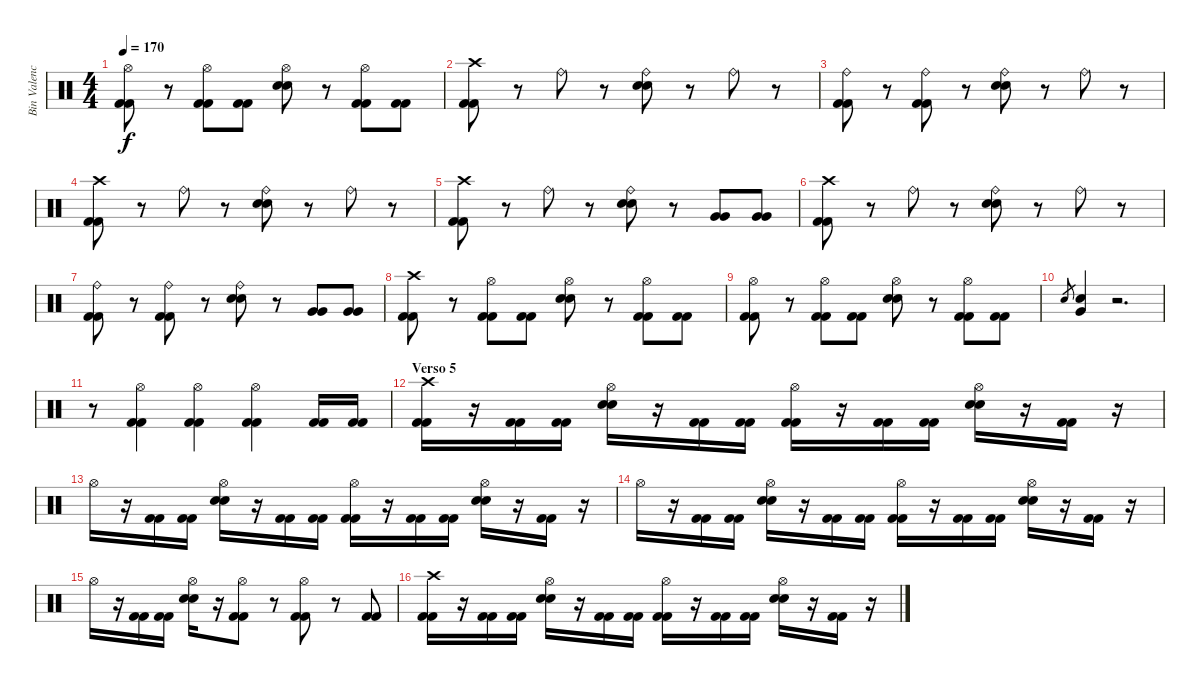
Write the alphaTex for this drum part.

\track ("Bin Valencia (Bateria)" "Bin Valenc") {instrument percussion}
\staff {score}
\articulation defaults
\ts (4 4)
\tempo 170
\clef neutral
\ks c
("Hi-Hat (open)" "Kick (hit) 2" "Kick (hit) 2").8{dy f} r.8 ("Hi-Hat (open)" "Kick (hit) 2" "Kick (hit) 2").8 ("Kick (hit) 2" "Kick (hit) 2").8 ("Hi-Hat (open)" "Snare (hit) 2" "Snare (hit) 2").8 r.8 ("Hi-Hat (open)" "Kick (hit) 2" "Kick (hit) 2").8 ("Kick (hit) 2" "Kick (hit) 2").8 |
("Crash high (hit)" "Kick (hit) 2" "Kick (hit) 2").8 r.8 "Ride (bell)".8 r.8 ("Ride (bell)" "Snare (hit) 2" "Snare (hit) 2").8 r.8 "Ride (bell)".8 r.8 |
("Ride (bell)" "Kick (hit) 2" "Kick (hit) 2").8 r.8 ("Ride (bell)" "Kick (hit) 2" "Kick (hit) 2").8 r.8 ("Ride (bell)" "Snare (hit) 2" "Snare (hit) 2").8 r.8 "Ride (bell)".8 r.8 |
("Crash high (hit)" "Kick (hit) 2" "Kick (hit) 2").8 r.8 "Ride (bell)".8 r.8 ("Ride (bell)" "Snare (hit) 2" "Snare (hit) 2").8 r.8 "Ride (bell)".8 r.8 |
("Crash high (hit)" "Kick (hit) 2" "Kick (hit) 2").8 r.8 "Ride (bell)".8 r.8 ("Ride (bell)" "Snare (hit) 2" "Snare (hit) 2").8 r.8 ("Very Low Tom (hit)" "Very Low Tom (hit)").8 ("Very Low Tom (hit)" "Very Low Tom (hit)").8 |
("Crash high (hit)" "Kick (hit) 2" "Kick (hit) 2").8 r.8 "Ride (bell)".8 r.8 ("Ride (bell)" "Snare (hit) 2" "Snare (hit) 2").8 r.8 "Ride (bell)".8 r.8 |
("Ride (bell)" "Kick (hit) 2" "Kick (hit) 2").8 r.8 ("Ride (bell)" "Kick (hit) 2" "Kick (hit) 2").8 r.8 ("Ride (bell)" "Snare (hit) 2" "Snare (hit) 2").8 r.8 ("Very Low Tom (hit)" "Very Low Tom (hit)").8 ("Very Low Tom (hit)" "Very Low Tom (hit)").8 |
("Crash high (hit)" "Kick (hit) 2" "Kick (hit) 2").8 r.8 ("Hi-Hat (open)" "Kick (hit) 2" "Kick (hit) 2").8 ("Kick (hit) 2" "Kick (hit) 2").8 ("Hi-Hat (open)" "Snare (hit) 2" "Snare (hit) 2").8 r.8 ("Hi-Hat (open)" "Kick (hit) 2" "Kick (hit) 2").8 ("Kick (hit) 2" "Kick (hit) 2").8 |
("Hi-Hat (open)" "Kick (hit) 2" "Kick (hit) 2").8 r.8 ("Hi-Hat (open)" "Kick (hit) 2" "Kick (hit) 2").8 ("Kick (hit) 2" "Kick (hit) 2").8 ("Hi-Hat (open)" "Snare (hit) 2" "Snare (hit) 2").8 r.8 ("Hi-Hat (open)" "Kick (hit) 2" "Kick (hit) 2").8 ("Kick (hit) 2" "Kick (hit) 2").8 |
"Snare (hit) 2".8{gr} ("Snare (hit) 2" "Very Low Tom (hit)").4 r.2{d} |
r.8 ("Hi-Hat (open)" "Kick (hit) 2" "Kick (hit) 2").4 ("Hi-Hat (open)" "Kick (hit) 2" "Kick (hit) 2").4 ("Hi-Hat (open)" "Kick (hit) 2" "Kick (hit) 2").4 ("Kick (hit) 2" "Kick (hit) 2").16 ("Kick (hit) 2" "Kick (hit) 2").16 |
\section ("" "Verso 5")
("Crash high (hit)" "Kick (hit) 2" "Kick (hit) 2").16 r.16 ("Kick (hit) 2" "Kick (hit) 2").16 ("Kick (hit) 2" "Kick (hit) 2").16 ("Hi-Hat (open)" "Snare (hit) 2" "Snare (hit) 2").16 r.16 ("Kick (hit) 2" "Kick (hit) 2").16 ("Kick (hit) 2" "Kick (hit) 2").16 ("Hi-Hat (open)" "Kick (hit) 2" "Kick (hit) 2").16 r.16 ("Kick (hit) 2" "Kick (hit) 2").16 ("Kick (hit) 2" "Kick (hit) 2").16 ("Hi-Hat (open)" "Snare (hit) 2" "Snare (hit) 2").16 r.16 ("Kick (hit) 2" "Kick (hit) 2").16 r.16 |
"Hi-Hat (open)".16 r.16 ("Kick (hit) 2" "Kick (hit) 2").16 ("Kick (hit) 2" "Kick (hit) 2").16 ("Hi-Hat (open)" "Snare (hit) 2" "Snare (hit) 2").16 r.16 ("Kick (hit) 2" "Kick (hit) 2").16 ("Kick (hit) 2" "Kick (hit) 2").16 ("Hi-Hat (open)" "Kick (hit) 2" "Kick (hit) 2").16 r.16 ("Kick (hit) 2" "Kick (hit) 2").16 ("Kick (hit) 2" "Kick (hit) 2").16 ("Hi-Hat (open)" "Snare (hit) 2" "Snare (hit) 2").16 r.16 ("Kick (hit) 2" "Kick (hit) 2").16 r.16 |
"Hi-Hat (open)".16 r.16 ("Kick (hit) 2" "Kick (hit) 2").16 ("Kick (hit) 2" "Kick (hit) 2").16 ("Hi-Hat (open)" "Snare (hit) 2" "Snare (hit) 2").16 r.16 ("Kick (hit) 2" "Kick (hit) 2").16 ("Kick (hit) 2" "Kick (hit) 2").16 ("Hi-Hat (open)" "Kick (hit) 2" "Kick (hit) 2").16 r.16 ("Kick (hit) 2" "Kick (hit) 2").16 ("Kick (hit) 2" "Kick (hit) 2").16 ("Hi-Hat (open)" "Snare (hit) 2" "Snare (hit) 2").16 r.16 ("Kick (hit) 2" "Kick (hit) 2").16 r.16 |
"Hi-Hat (open)".16 r.16 ("Kick (hit) 2" "Kick (hit) 2").16 ("Kick (hit) 2" "Kick (hit) 2").16 ("Hi-Hat (open)" "Snare (hit) 2" "Snare (hit) 2").16 r.16 ("Hi-Hat (open)" "Kick (hit) 2" "Kick (hit) 2").8 r.8 ("Hi-Hat (open)" "Kick (hit) 2" "Kick (hit) 2").8 r.8 ("Kick (hit) 2" "Kick (hit) 2").8 |
("Crash high (hit)" "Kick (hit) 2" "Kick (hit) 2").16 r.16 ("Kick (hit) 2" "Kick (hit) 2").16 ("Kick (hit) 2" "Kick (hit) 2").16 ("Hi-Hat (open)" "Snare (hit) 2" "Snare (hit) 2").16 r.16 ("Kick (hit) 2" "Kick (hit) 2").16 ("Kick (hit) 2" "Kick (hit) 2").16 ("Hi-Hat (open)" "Kick (hit) 2" "Kick (hit) 2").16 r.16 ("Kick (hit) 2" "Kick (hit) 2").16 ("Kick (hit) 2" "Kick (hit) 2").16 ("Hi-Hat (open)" "Snare (hit) 2" "Snare (hit) 2").16 r.16 ("Kick (hit) 2" "Kick (hit) 2").16 r.16
